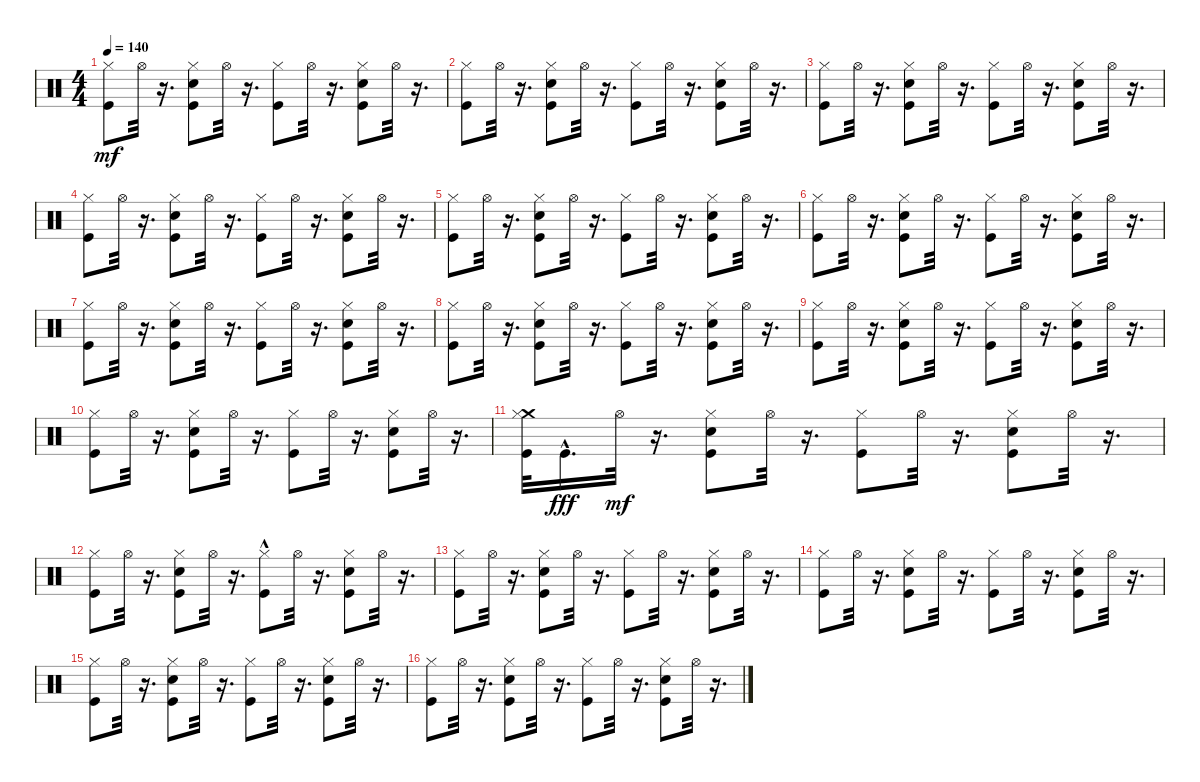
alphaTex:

\track "" {instrument percussion}
\staff {score}
\articulation defaults
\ts (4 4)
\tempo 140
\clef neutral
\ks c
("Kick (hit)" "Hi-Hat (closed)").8{dy mf} "Hi-Hat (open)".32 r.16{d} ("Kick (hit)" "Hi-Hat (closed)" "Hand Clap (hit)").8 "Hi-Hat (open)".32 r.16{d} ("Kick (hit)" "Hi-Hat (closed)").8 "Hi-Hat (open)".32 r.16{d} ("Kick (hit)" "Hi-Hat (closed)" "Hand Clap (hit)").8 "Hi-Hat (open)".32 r.16{d} |
("Kick (hit)" "Hi-Hat (closed)").8 "Hi-Hat (open)".32 r.16{d} ("Kick (hit)" "Hand Clap (hit)" "Hi-Hat (closed)").8 "Hi-Hat (open)".32 r.16{d} ("Kick (hit)" "Hi-Hat (closed)").8 "Hi-Hat (open)".32 r.16{d} ("Kick (hit)" "Hi-Hat (closed)" "Hand Clap (hit)").8 "Hi-Hat (open)".32 r.16{d} |
("Kick (hit)" "Hi-Hat (closed)").8 "Hi-Hat (open)".32 r.16{d} ("Kick (hit)" "Hi-Hat (closed)" "Hand Clap (hit)").8 "Hi-Hat (open)".32 r.16{d} ("Kick (hit)" "Hi-Hat (closed)").8 "Hi-Hat (open)".32 r.16{d} ("Kick (hit)" "Hi-Hat (closed)" "Hand Clap (hit)").8 "Hi-Hat (open)".32 r.16{d} |
("Kick (hit)" "Hi-Hat (closed)").8 "Hi-Hat (open)".32 r.16{d} ("Kick (hit)" "Hi-Hat (closed)" "Hand Clap (hit)").8 "Hi-Hat (open)".32 r.16{d} ("Kick (hit)" "Hi-Hat (closed)").8 "Hi-Hat (open)".32 r.16{d} ("Kick (hit)" "Hand Clap (hit)" "Hi-Hat (closed)").8 "Hi-Hat (open)".32 r.16{d} |
("Kick (hit)" "Hi-Hat (closed)").8 "Hi-Hat (open)".32 r.16{d} ("Kick (hit)" "Hand Clap (hit)" "Hi-Hat (closed)").8 "Hi-Hat (open)".32 r.16{d} ("Kick (hit)" "Hi-Hat (closed)").8 "Hi-Hat (open)".32 r.16{d} ("Kick (hit)" "Hand Clap (hit)" "Hi-Hat (closed)").8 "Hi-Hat (open)".32 r.16{d} |
("Kick (hit)" "Hi-Hat (closed)").8 "Hi-Hat (open)".32 r.16{d} ("Kick (hit)" "Hi-Hat (closed)" "Hand Clap (hit)").8 "Hi-Hat (open)".32 r.16{d} ("Kick (hit)" "Hi-Hat (closed)").8 "Hi-Hat (open)".32 r.16{d} ("Kick (hit)" "Hand Clap (hit)" "Hi-Hat (closed)").8 "Hi-Hat (open)".32 r.16{d} |
("Kick (hit)" "Hi-Hat (closed)").8 "Hi-Hat (open)".32 r.16{d} ("Kick (hit)" "Hi-Hat (closed)" "Hand Clap (hit)").8 "Hi-Hat (open)".32 r.16{d} ("Kick (hit)" "Hi-Hat (closed)").8 "Hi-Hat (open)".32 r.16{d} ("Kick (hit)" "Hi-Hat (closed)" "Hand Clap (hit)").8 "Hi-Hat (open)".32 r.16{d} |
("Kick (hit)" "Hi-Hat (closed)").8 "Hi-Hat (open)".32 r.16{d} ("Kick (hit)" "Hand Clap (hit)" "Hi-Hat (closed)").8 "Hi-Hat (open)".32 r.16{d} ("Kick (hit)" "Hi-Hat (closed)").8 "Hi-Hat (open)".32 r.16{d} ("Kick (hit)" "Hi-Hat (closed)" "Hand Clap (hit)").8 "Hi-Hat (open)".32 r.16{d} |
("Kick (hit)" "Hi-Hat (closed)").8 "Hi-Hat (open)".32 r.16{d} ("Kick (hit)" "Hand Clap (hit)" "Hi-Hat (closed)").8 "Hi-Hat (open)".32 r.16{d} ("Kick (hit)" "Hi-Hat (closed)").8 "Hi-Hat (open)".32 r.16{d} ("Kick (hit)" "Hi-Hat (closed)" "Hand Clap (hit)").8 "Hi-Hat (open)".32 r.16{d} |
("Kick (hit)" "Hi-Hat (closed)").8 "Hi-Hat (open)".32 r.16{d} ("Kick (hit)" "Hi-Hat (closed)" "Hand Clap (hit)").8 "Hi-Hat (open)".32 r.16{d} ("Kick (hit)" "Hi-Hat (closed)").8 "Hi-Hat (open)".32 r.16{d} ("Kick (hit)" "Hi-Hat (closed)" "Hand Clap (hit)").8 "Hi-Hat (open)".32 r.16{d} |
("Kick (hit)" "Crash medium (hit)" "Hi-Hat (closed)").32 "Kick (hit)"{hac}.16{d dy fff} "Hi-Hat (open)".32{dy mf} r.16{d} ("Kick (hit)" "Hand Clap (hit)" "Hi-Hat (closed)").8 "Hi-Hat (open)".32 r.16{d} ("Kick (hit)" "Hi-Hat (closed)").8 "Hi-Hat (open)".32 r.16{d} ("Kick (hit)" "Hand Clap (hit)" "Hi-Hat (closed)").8 "Hi-Hat (open)".32 r.16{d} |
("Kick (hit)" "Hi-Hat (closed)").8 "Hi-Hat (open)".32 r.16{d} ("Kick (hit)" "Hi-Hat (closed)" "Hand Clap (hit)").8 "Hi-Hat (open)".32 r.16{d} ("Kick (hit)"{hac} "Hi-Hat (closed)").8 "Hi-Hat (open)".32 r.16{d} ("Kick (hit)" "Hi-Hat (closed)" "Hand Clap (hit)").8 "Hi-Hat (open)".32 r.16{d} |
("Kick (hit)" "Hi-Hat (closed)").8 "Hi-Hat (open)".32 r.16{d} ("Kick (hit)" "Hi-Hat (closed)" "Hand Clap (hit)").8 "Hi-Hat (open)".32 r.16{d} ("Kick (hit)" "Hi-Hat (closed)").8 "Hi-Hat (open)".32 r.16{d} ("Kick (hit)" "Hand Clap (hit)" "Hi-Hat (closed)").8 "Hi-Hat (open)".32 r.16{d} |
("Kick (hit)" "Hi-Hat (closed)").8 "Hi-Hat (open)".32 r.16{d} ("Kick (hit)" "Hand Clap (hit)" "Hi-Hat (closed)").8 "Hi-Hat (open)".32 r.16{d} ("Kick (hit)" "Hi-Hat (closed)").8 "Hi-Hat (open)".32 r.16{d} ("Kick (hit)" "Hand Clap (hit)" "Hi-Hat (closed)").8 "Hi-Hat (open)".32 r.16{d} |
("Kick (hit)" "Hi-Hat (closed)").8 "Hi-Hat (open)".32 r.16{d} ("Kick (hit)" "Hand Clap (hit)" "Hi-Hat (closed)").8 "Hi-Hat (open)".32 r.16{d} ("Kick (hit)" "Hi-Hat (closed)").8 "Hi-Hat (open)".32 r.16{d} ("Kick (hit)" "Hand Clap (hit)" "Hi-Hat (closed)").8 "Hi-Hat (open)".32 r.16{d} |
("Kick (hit)" "Hi-Hat (closed)").8 "Hi-Hat (open)".32 r.16{d} ("Kick (hit)" "Hi-Hat (closed)" "Hand Clap (hit)").8 "Hi-Hat (open)".32 r.16{d} ("Kick (hit)" "Hi-Hat (closed)").8 "Hi-Hat (open)".32 r.16{d} ("Kick (hit)" "Hand Clap (hit)" "Hi-Hat (closed)").8 "Hi-Hat (open)".32 r.16{d}
